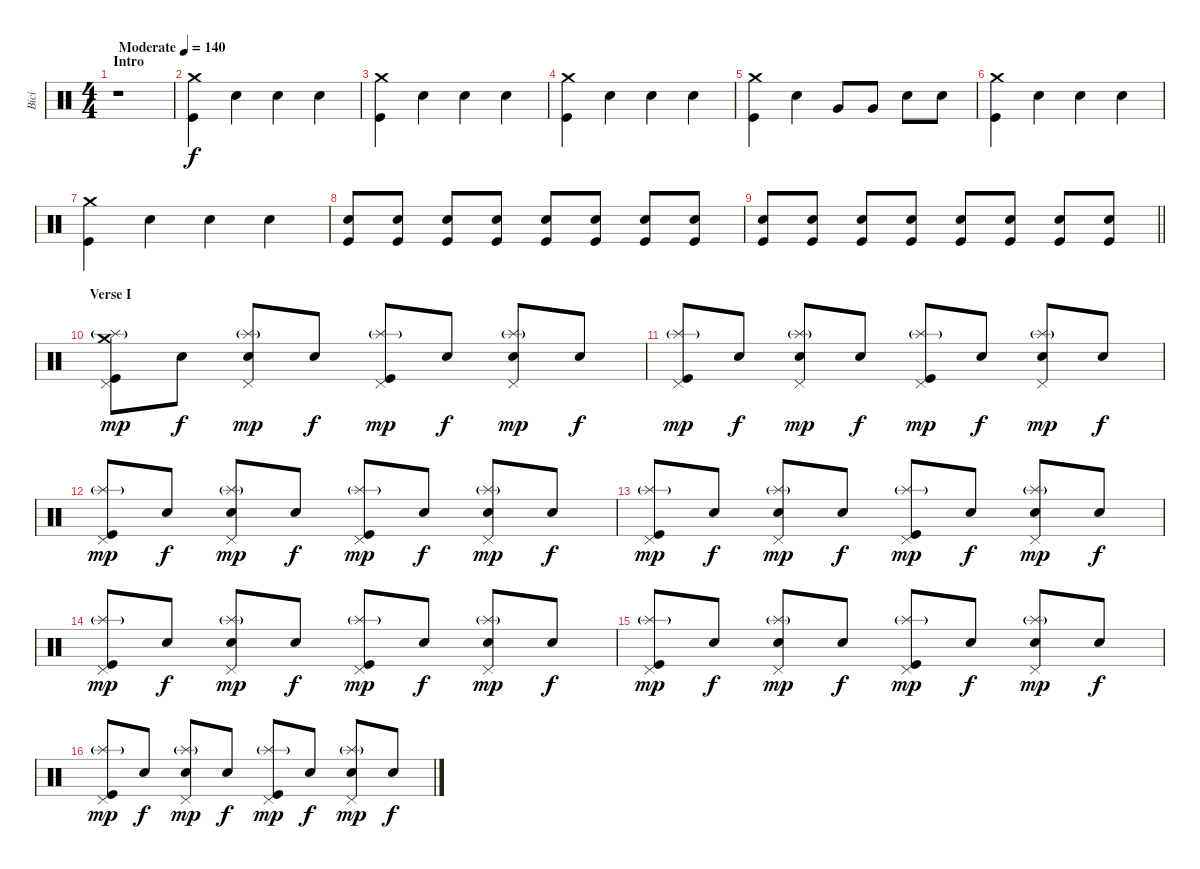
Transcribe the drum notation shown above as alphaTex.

\track ("Bicí" "Bicí") {instrument percussion}
\staff {score}
\articulation defaults
\ts (4 4)
\section ("" "Intro")
\tempo (140 "Moderate")
\clef neutral
\ks c
r.1{dy f} |
("Crash medium (hit)" "Kick (hit)").4 "Snare (hit)".4 "Electric Snare (hit)".4 "Snare (hit)".4 |
("Crash medium (hit)" "Kick (hit)").4 "Snare (hit)".4 "Electric Snare (hit)".4 "Snare (hit)".4 |
("Crash medium (hit)" "Kick (hit)").4 "Snare (hit)".4 "Electric Snare (hit)".4 "Snare (hit)".4 |
("Crash medium (hit)" "Kick (hit)").4 "Electric Snare (hit)".4 "Very Low Tom (hit)".8 "Very Low Tom (hit)".8 "Snare (hit)".8 "Snare (hit)".8 |
("Crash medium (hit)" "Kick (hit)").4 "Snare (hit)".4 "Electric Snare (hit)".4 "Snare (hit)".4 |
("Crash medium (hit)" "Kick (hit)").4 "Snare (hit)".4 "Electric Snare (hit)".4 "Snare (hit)".4 |
("Electric Snare (hit)" "Kick (hit)").8{volume 0} ("Electric Snare (hit)" "Kick (hit)").8{volume 16} ("Electric Snare (hit)" "Kick (hit)").8 ("Electric Snare (hit)" "Kick (hit)").8 ("Electric Snare (hit)" "Kick (hit)").8 ("Electric Snare (hit)" "Kick (hit)").8 ("Electric Snare (hit)" "Kick (hit)").8 ("Electric Snare (hit)" "Kick (hit)").8 |
\barLineRight lightlight
("Electric Snare (hit)" "Kick (hit)").8 ("Electric Snare (hit)" "Kick (hit)").8 ("Electric Snare (hit)" "Kick (hit)").8 ("Electric Snare (hit)" "Kick (hit)").8 ("Electric Snare (hit)" "Kick (hit)").8 ("Electric Snare (hit)" "Kick (hit)").8 ("Electric Snare (hit)" "Kick (hit)").8 ("Electric Snare (hit)" "Kick (hit)").8 |
\section ("" "Verse I")
("Crash medium (hit)" "Splash (hit)"{g} "Pedal Hi-Hat (hit)" "Kick (hit)").8{dy mp} "Snare (hit)".8{dy f} ("Splash (hit)"{g} "Pedal Hi-Hat (hit)" "Electric Snare (hit)").8{dy mp} "Snare (hit)".8{dy f} ("Splash (hit)"{g} "Pedal Hi-Hat (hit)" "Kick (hit)").8{dy mp} "Snare (hit)".8{dy f} ("Splash (hit)"{g} "Pedal Hi-Hat (hit)" "Electric Snare (hit)").8{dy mp} "Snare (hit)".8{dy f} |
("Splash (hit)"{g} "Pedal Hi-Hat (hit)" "Kick (hit)").8{dy mp} "Snare (hit)".8{dy f} ("Splash (hit)"{g} "Pedal Hi-Hat (hit)" "Electric Snare (hit)").8{dy mp} "Snare (hit)".8{dy f} ("Splash (hit)"{g} "Pedal Hi-Hat (hit)" "Kick (hit)").8{dy mp} "Snare (hit)".8{dy f} ("Splash (hit)"{g} "Pedal Hi-Hat (hit)" "Electric Snare (hit)").8{dy mp} "Snare (hit)".8{dy f} |
("Splash (hit)"{g} "Pedal Hi-Hat (hit)" "Kick (hit)").8{dy mp} "Snare (hit)".8{dy f} ("Splash (hit)"{g} "Pedal Hi-Hat (hit)" "Electric Snare (hit)").8{dy mp} "Snare (hit)".8{dy f} ("Splash (hit)"{g} "Pedal Hi-Hat (hit)" "Kick (hit)").8{dy mp} "Snare (hit)".8{dy f} ("Splash (hit)"{g} "Pedal Hi-Hat (hit)" "Electric Snare (hit)").8{dy mp} "Snare (hit)".8{dy f} |
("Splash (hit)"{g} "Pedal Hi-Hat (hit)" "Kick (hit)").8{dy mp} "Snare (hit)".8{dy f} ("Splash (hit)"{g} "Pedal Hi-Hat (hit)" "Electric Snare (hit)").8{dy mp} "Snare (hit)".8{dy f} ("Splash (hit)"{g} "Pedal Hi-Hat (hit)" "Kick (hit)").8{dy mp} "Snare (hit)".8{dy f} ("Splash (hit)"{g} "Pedal Hi-Hat (hit)" "Electric Snare (hit)").8{dy mp} "Snare (hit)".8{dy f} |
("Splash (hit)"{g} "Pedal Hi-Hat (hit)" "Kick (hit)").8{dy mp} "Snare (hit)".8{dy f} ("Splash (hit)"{g} "Pedal Hi-Hat (hit)" "Electric Snare (hit)").8{dy mp} "Snare (hit)".8{dy f} ("Splash (hit)"{g} "Pedal Hi-Hat (hit)" "Kick (hit)").8{dy mp} "Snare (hit)".8{dy f} ("Splash (hit)"{g} "Pedal Hi-Hat (hit)" "Electric Snare (hit)").8{dy mp} "Snare (hit)".8{dy f} |
("Splash (hit)"{g} "Pedal Hi-Hat (hit)" "Kick (hit)").8{dy mp} "Snare (hit)".8{dy f} ("Splash (hit)"{g} "Pedal Hi-Hat (hit)" "Electric Snare (hit)").8{dy mp} "Snare (hit)".8{dy f} ("Splash (hit)"{g} "Pedal Hi-Hat (hit)" "Kick (hit)").8{dy mp} "Snare (hit)".8{dy f} ("Splash (hit)"{g} "Pedal Hi-Hat (hit)" "Electric Snare (hit)").8{dy mp} "Snare (hit)".8{dy f} |
("Splash (hit)"{g} "Pedal Hi-Hat (hit)" "Kick (hit)").8{dy mp} "Snare (hit)".8{dy f} ("Splash (hit)"{g} "Pedal Hi-Hat (hit)" "Electric Snare (hit)").8{dy mp} "Snare (hit)".8{dy f} ("Splash (hit)"{g} "Pedal Hi-Hat (hit)" "Kick (hit)").8{dy mp} "Snare (hit)".8{dy f} ("Splash (hit)"{g} "Pedal Hi-Hat (hit)" "Electric Snare (hit)").8{dy mp} "Snare (hit)".8{dy f}
